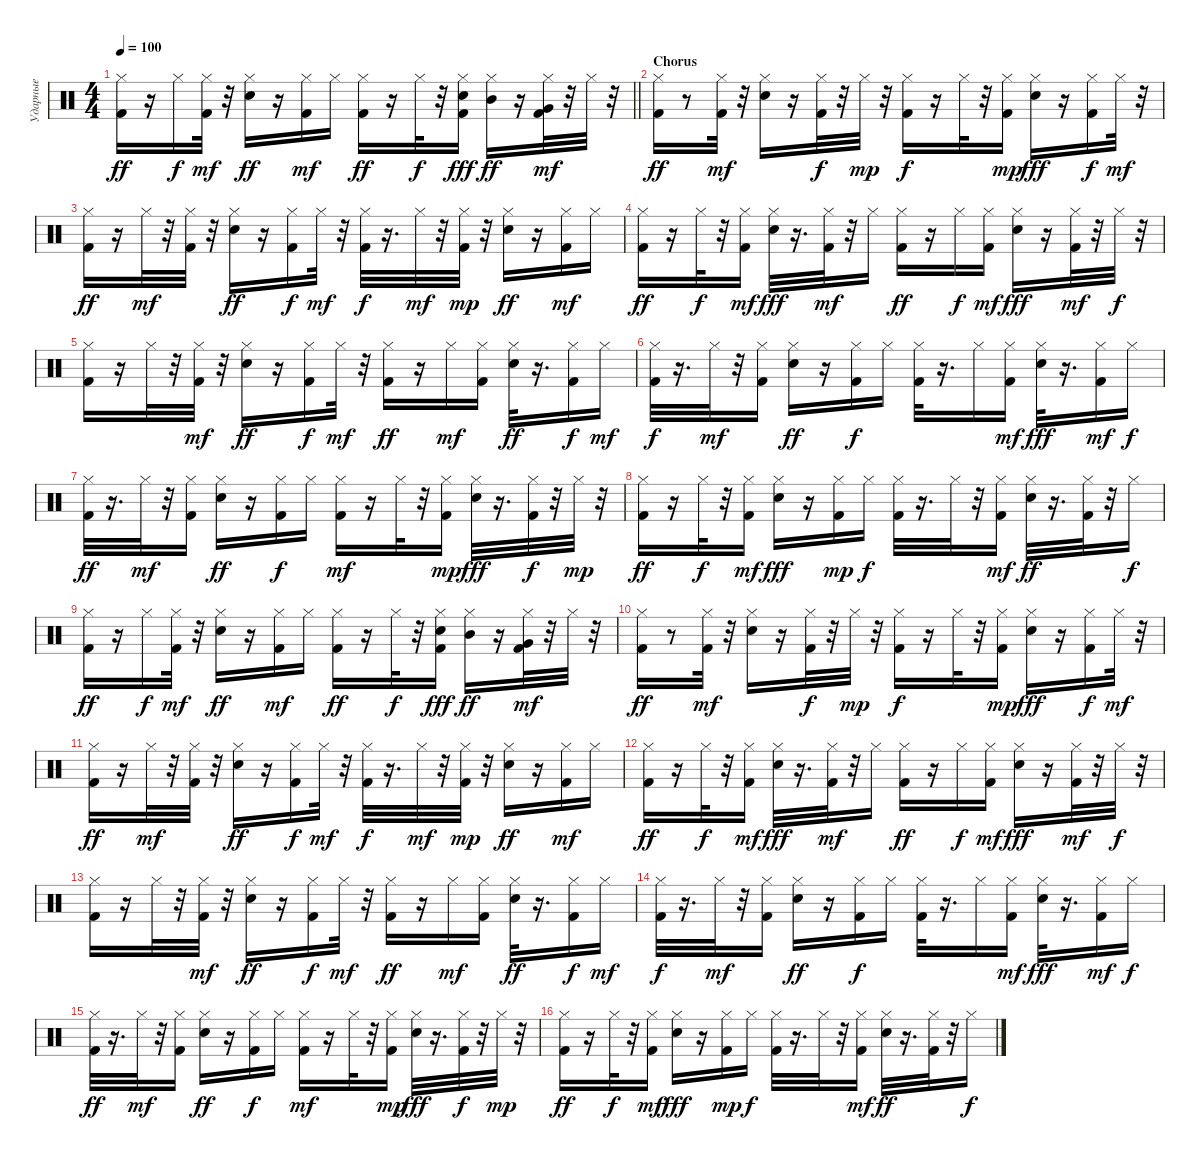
\track ("Ударные" "Ударные") {instrument percussion}
\staff {score}
\articulation defaults
\ts (4 4)
\tempo 100
\clef neutral
\barLineRight lightlight
\ks c
("Hi-Hat (closed)" "Kick (hit) 2").16{dy ff} r.16 "Hi-Hat (closed)".16{dy f} ("Kick (hit) 2" "Hi-Hat (closed)").32{dy mf} r.32 ("Hi-Hat (closed)" "Snare (hit) 2").16{dy ff} r.16 ("Hi-Hat (closed)" "Kick (hit) 2").16{dy mf} "Hi-Hat (closed)".16 ("Hi-Hat (closed)" "Kick (hit) 2").16{dy ff} r.16 "Hi-Hat (closed)".32{dy f} r.32 ("Hi-Hat (closed)" "Kick (hit) 2" "Snare (hit) 2").16{dy fff} ("Hi-Hat (closed)" "Mid Tom (hit)").16{dy ff} r.16 ("Kick (hit) 2" "Hi-Hat (closed)" "Very Low Tom (hit)").32{dy mf} r.32 "Hi-Hat (closed)".32 r.32 |
\section ("" "Chorus")
("Kick (hit) 2" "Hi-Hat (closed)").16{dy ff} r.8 ("Hi-Hat (closed)" "Kick (hit) 2").32{dy mf} r.32 ("Snare (hit) 2" "Hi-Hat (closed)").16 r.16 ("Kick (hit) 2" "Hi-Hat (closed)").32{dy f} r.32 "Hi-Hat (closed)".32{dy mp} r.32 ("Kick (hit) 2" "Hi-Hat (closed)").16{dy f} r.16 "Hi-Hat (closed)".32 r.32 ("Kick (hit) 2" "Hi-Hat (closed)").16{dy mp} ("Hi-Hat (closed)" "Snare (hit) 2").16{dy fff} r.16 ("Kick (hit) 2" "Hi-Hat (closed)").16{dy f} "Hi-Hat (closed)".32{dy mf} r.32 |
("Kick (hit) 2" "Hi-Hat (closed)").16{dy ff} r.16 "Hi-Hat (closed)".32{dy mf} r.32 ("Kick (hit) 2" "Hi-Hat (closed)").32 r.32 ("Hi-Hat (closed)" "Snare (hit) 2").16{dy ff} r.16 ("Kick (hit) 2" "Hi-Hat (closed)").16{dy f} "Hi-Hat (closed)".32{dy mf} r.32 ("Kick (hit) 2" "Hi-Hat (closed)").32{dy f} r.16{d} "Hi-Hat (closed)".32{dy mf} r.32 ("Kick (hit) 2" "Hi-Hat (closed)").32{dy mp} r.32 ("Hi-Hat (closed)" "Snare (hit) 2").16{dy ff} r.16 ("Hi-Hat (closed)" "Kick (hit) 2").16{dy mf} "Hi-Hat (closed)".16 |
("Hi-Hat (closed)" "Kick (hit) 2").16{dy ff} r.16 "Hi-Hat (closed)".32{dy f} r.32 ("Kick (hit) 2" "Hi-Hat (closed)").16{dy mf} ("Hi-Hat (closed)" "Snare (hit) 2").32{dy fff} r.16{d} ("Kick (hit) 2" "Hi-Hat (closed)").32{dy mf} r.32 "Hi-Hat (closed)".16 ("Hi-Hat (closed)" "Kick (hit) 2").16{dy ff} r.16 "Hi-Hat (closed)".16{dy f} ("Kick (hit) 2" "Hi-Hat (closed)").16{dy mf} ("Hi-Hat (closed)" "Snare (hit) 2").16{dy fff} r.16 ("Kick (hit) 2" "Hi-Hat (closed)").32{dy mf} r.32 "Hi-Hat (closed)".32{dy f} r.32 |
("Hi-Hat (closed)" "Kick (hit) 2").16 r.16 "Hi-Hat (closed)".32 r.32 ("Kick (hit) 2" "Hi-Hat (closed)").32{dy mf} r.32 ("Hi-Hat (closed)" "Snare (hit) 2").16{dy ff} r.16 ("Kick (hit) 2" "Hi-Hat (closed)").16{dy f} "Hi-Hat (closed)".32{dy mf} r.32 ("Kick (hit) 2" "Hi-Hat (closed)").16{dy ff} r.16 "Hi-Hat (closed)".16{dy mf} ("Kick (hit) 2" "Hi-Hat (closed)").16 ("Hi-Hat (closed)" "Snare (hit) 2").32{dy ff} r.16{d} ("Kick (hit) 2" "Hi-Hat (closed)").16{dy f} "Hi-Hat (closed)".16{dy mf} |
("Kick (hit) 2" "Hi-Hat (closed)").32{dy f} r.16{d} "Hi-Hat (closed)".32{dy mf} r.32 ("Kick (hit) 2" "Hi-Hat (closed)").16 ("Hi-Hat (closed)" "Snare (hit) 2").16{dy ff} r.16 ("Kick (hit) 2" "Hi-Hat (closed)").16{dy f} "Hi-Hat (closed)".16 ("Kick (hit) 2" "Hi-Hat (closed)").32 r.16{d} "Hi-Hat (closed)".16 ("Kick (hit) 2" "Hi-Hat (closed)").16{dy mf} ("Hi-Hat (closed)" "Snare (hit) 2").32{dy fff} r.16{d} ("Kick (hit) 2" "Hi-Hat (closed)").16{dy mf} "Hi-Hat (closed)".16{dy f} |
("Kick (hit) 2" "Hi-Hat (closed)").32{dy ff} r.16{d} "Hi-Hat (closed)".32{dy mf} r.32 ("Kick (hit) 2" "Hi-Hat (closed)").16 ("Hi-Hat (closed)" "Snare (hit) 2").16{dy ff} r.16 ("Kick (hit) 2" "Hi-Hat (closed)").16{dy f} "Hi-Hat (closed)".16 ("Hi-Hat (closed)" "Kick (hit) 2").16{dy mf} r.16 "Hi-Hat (closed)".32 r.32 ("Kick (hit) 2" "Hi-Hat (closed)").16{dy mp} ("Hi-Hat (closed)" "Snare (hit) 2").32{dy fff} r.16{d} ("Kick (hit) 2" "Hi-Hat (closed)").32{dy f} r.32 "Hi-Hat (closed)".32{dy mp} r.32 |
("Kick (hit) 2" "Hi-Hat (closed)").16{dy ff} r.16 "Hi-Hat (closed)".32{dy f} r.32 ("Hi-Hat (closed)" "Kick (hit) 2").16{dy mf} ("Hi-Hat (closed)" "Snare (hit) 2").16{dy fff} r.16 ("Kick (hit) 2" "Hi-Hat (closed)").16{dy mp} "Hi-Hat (closed)".16{dy f} ("Kick (hit) 2" "Hi-Hat (closed)").32 r.16{d} "Hi-Hat (closed)".32 r.32 ("Kick (hit) 2" "Hi-Hat (closed)").16{dy mf} ("Hi-Hat (closed)" "Snare (hit) 2").32{dy ff} r.16{d} ("Kick (hit) 2" "Hi-Hat (closed)").32 r.32 "Hi-Hat (closed)".16{dy f} |
("Hi-Hat (closed)" "Kick (hit) 2").16{dy ff} r.16 "Hi-Hat (closed)".16{dy f} ("Kick (hit) 2" "Hi-Hat (closed)").32{dy mf} r.32 ("Hi-Hat (closed)" "Snare (hit) 2").16{dy ff} r.16 ("Hi-Hat (closed)" "Kick (hit) 2").16{dy mf} "Hi-Hat (closed)".16 ("Hi-Hat (closed)" "Kick (hit) 2").16{dy ff} r.16 "Hi-Hat (closed)".32{dy f} r.32 ("Hi-Hat (closed)" "Kick (hit) 2" "Snare (hit) 2").16{dy fff} ("Hi-Hat (closed)" "Mid Tom (hit)").16{dy ff} r.16 ("Kick (hit) 2" "Hi-Hat (closed)" "Very Low Tom (hit)").32{dy mf} r.32 "Hi-Hat (closed)".32 r.32 |
("Kick (hit) 2" "Hi-Hat (closed)").16{dy ff} r.8 ("Hi-Hat (closed)" "Kick (hit) 2").32{dy mf} r.32 ("Snare (hit) 2" "Hi-Hat (closed)").16 r.16 ("Kick (hit) 2" "Hi-Hat (closed)").32{dy f} r.32 "Hi-Hat (closed)".32{dy mp} r.32 ("Kick (hit) 2" "Hi-Hat (closed)").16{dy f} r.16 "Hi-Hat (closed)".32 r.32 ("Kick (hit) 2" "Hi-Hat (closed)").16{dy mp} ("Hi-Hat (closed)" "Snare (hit) 2").16{dy fff} r.16 ("Kick (hit) 2" "Hi-Hat (closed)").16{dy f} "Hi-Hat (closed)".32{dy mf} r.32 |
("Kick (hit) 2" "Hi-Hat (closed)").16{dy ff} r.16 "Hi-Hat (closed)".32{dy mf} r.32 ("Kick (hit) 2" "Hi-Hat (closed)").32 r.32 ("Hi-Hat (closed)" "Snare (hit) 2").16{dy ff} r.16 ("Kick (hit) 2" "Hi-Hat (closed)").16{dy f} "Hi-Hat (closed)".32{dy mf} r.32 ("Kick (hit) 2" "Hi-Hat (closed)").32{dy f} r.16{d} "Hi-Hat (closed)".32{dy mf} r.32 ("Kick (hit) 2" "Hi-Hat (closed)").32{dy mp} r.32 ("Hi-Hat (closed)" "Snare (hit) 2").16{dy ff} r.16 ("Hi-Hat (closed)" "Kick (hit) 2").16{dy mf} "Hi-Hat (closed)".16 |
("Hi-Hat (closed)" "Kick (hit) 2").16{dy ff} r.16 "Hi-Hat (closed)".32{dy f} r.32 ("Kick (hit) 2" "Hi-Hat (closed)").16{dy mf} ("Hi-Hat (closed)" "Snare (hit) 2").32{dy fff} r.16{d} ("Kick (hit) 2" "Hi-Hat (closed)").32{dy mf} r.32 "Hi-Hat (closed)".16 ("Hi-Hat (closed)" "Kick (hit) 2").16{dy ff} r.16 "Hi-Hat (closed)".16{dy f} ("Kick (hit) 2" "Hi-Hat (closed)").16{dy mf} ("Hi-Hat (closed)" "Snare (hit) 2").16{dy fff} r.16 ("Kick (hit) 2" "Hi-Hat (closed)").32{dy mf} r.32 "Hi-Hat (closed)".32{dy f} r.32 |
("Hi-Hat (closed)" "Kick (hit) 2").16 r.16 "Hi-Hat (closed)".32 r.32 ("Kick (hit) 2" "Hi-Hat (closed)").32{dy mf} r.32 ("Hi-Hat (closed)" "Snare (hit) 2").16{dy ff} r.16 ("Kick (hit) 2" "Hi-Hat (closed)").16{dy f} "Hi-Hat (closed)".32{dy mf} r.32 ("Kick (hit) 2" "Hi-Hat (closed)").16{dy ff} r.16 "Hi-Hat (closed)".16{dy mf} ("Kick (hit) 2" "Hi-Hat (closed)").16 ("Hi-Hat (closed)" "Snare (hit) 2").32{dy ff} r.16{d} ("Kick (hit) 2" "Hi-Hat (closed)").16{dy f} "Hi-Hat (closed)".16{dy mf} |
("Kick (hit) 2" "Hi-Hat (closed)").32{dy f} r.16{d} "Hi-Hat (closed)".32{dy mf} r.32 ("Kick (hit) 2" "Hi-Hat (closed)").16 ("Hi-Hat (closed)" "Snare (hit) 2").16{dy ff} r.16 ("Kick (hit) 2" "Hi-Hat (closed)").16{dy f} "Hi-Hat (closed)".16 ("Kick (hit) 2" "Hi-Hat (closed)").32 r.16{d} "Hi-Hat (closed)".16 ("Kick (hit) 2" "Hi-Hat (closed)").16{dy mf} ("Hi-Hat (closed)" "Snare (hit) 2").32{dy fff} r.16{d} ("Kick (hit) 2" "Hi-Hat (closed)").16{dy mf} "Hi-Hat (closed)".16{dy f} |
("Kick (hit) 2" "Hi-Hat (closed)").32{dy ff} r.16{d} "Hi-Hat (closed)".32{dy mf} r.32 ("Kick (hit) 2" "Hi-Hat (closed)").16 ("Hi-Hat (closed)" "Snare (hit) 2").16{dy ff} r.16 ("Kick (hit) 2" "Hi-Hat (closed)").16{dy f} "Hi-Hat (closed)".16 ("Hi-Hat (closed)" "Kick (hit) 2").16{dy mf} r.16 "Hi-Hat (closed)".32 r.32 ("Kick (hit) 2" "Hi-Hat (closed)").16{dy mp} ("Hi-Hat (closed)" "Snare (hit) 2").32{dy fff} r.16{d} ("Kick (hit) 2" "Hi-Hat (closed)").32{dy f} r.32 "Hi-Hat (closed)".32{dy mp} r.32 |
("Kick (hit) 2" "Hi-Hat (closed)").16{dy ff} r.16 "Hi-Hat (closed)".32{dy f} r.32 ("Hi-Hat (closed)" "Kick (hit) 2").16{dy mf} ("Hi-Hat (closed)" "Snare (hit) 2").16{dy fff} r.16 ("Kick (hit) 2" "Hi-Hat (closed)").16{dy mp} "Hi-Hat (closed)".16{dy f} ("Kick (hit) 2" "Hi-Hat (closed)").32 r.16{d} "Hi-Hat (closed)".32 r.32 ("Kick (hit) 2" "Hi-Hat (closed)").16{dy mf} ("Hi-Hat (closed)" "Snare (hit) 2").32{dy ff} r.16{d} ("Kick (hit) 2" "Hi-Hat (closed)").32 r.32 "Hi-Hat (closed)".16{dy f}
